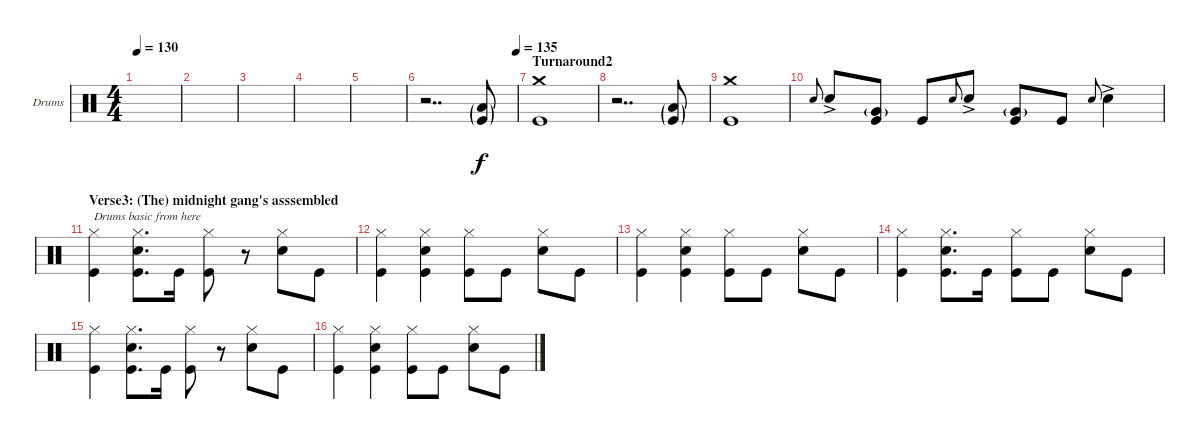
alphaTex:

\defaultSystemsLayout 4
\bracketExtendMode groupsimilarinstruments
\firstSystemTrackNameOrientation horizontal
\otherSystemsTrackNameOrientation horizontal
\track ("Drumkit" "Drums") {instrument percussion}
\staff {score}
\articulation defaults
\ts (4 4)
\tempo 130
\clef neutral
\scale
0.333333
\ks c
|
\scale
0.333333 |
\scale
0.333333 |
\scale
0.333333 |
\scale
0.333333 |
\tempo (135 1)
\scale
0.333333 r.2{dd} ("Kick (hit)"{g} "Low Tom (hit)"{g}).8 |
\section ("" "Turnaround2")
\scale
0.333333 ("Kick (hit)" "Crash medium (hit)").1 |
\scale
0.333333 r.2{dd} ("Kick (hit)"{g} "Low Tom (hit)"{g}).8 |
\scale
0.333333 ("Kick (hit)" "Crash medium (hit)").1 |
\scale
0.333333 "Snare (hit) 2".8{gr onbeat} "Snare (hit) 2"{ac}.8 ("Very Low Tom (hit)"{g} "Kick (hit)").8 "Kick (hit)".8 "Snare (hit) 2".8{gr onbeat} "Snare (hit) 2"{ac}.8 ("Very Low Tom (hit)"{g} "Kick (hit)").8 "Kick (hit)".8 "Snare (hit) 2".8{gr onbeat} "Snare (hit) 2"{ac}.4 |
\section ("" "Verse3: (The) midnight gang's asssembled")
\scale
0.333333 ("Kick (hit)" "Hi-Hat (closed)").4{txt "Drums basic from here"} ("Kick (hit)" "Snare (hit) 2" "Hi-Hat (closed)").8{d} "Kick (hit)".16 ("Kick (hit)" "Hi-Hat (closed)").8 r.8 ("Snare (hit) 2" "Hi-Hat (closed)").8 "Kick (hit)".8 |
\scale
0.333333 ("Kick (hit)" "Hi-Hat (closed)").4 ("Kick (hit)" "Snare (hit) 2" "Hi-Hat (closed)").4 ("Kick (hit)" "Hi-Hat (closed)").8 "Kick (hit)".8 ("Snare (hit) 2" "Hi-Hat (closed)").8 "Kick (hit)".8 |
\scale
0.333333 ("Kick (hit)" "Hi-Hat (closed)").4 ("Kick (hit)" "Snare (hit) 2" "Hi-Hat (closed)").4 ("Kick (hit)" "Hi-Hat (closed)").8 "Kick (hit)".8 ("Snare (hit) 2" "Hi-Hat (closed)").8 "Kick (hit)".8 |
\scale
0.333333 ("Kick (hit)" "Hi-Hat (closed)").4 ("Kick (hit)" "Snare (hit) 2" "Hi-Hat (closed)").8{d} "Kick (hit)".16 ("Kick (hit)" "Hi-Hat (closed)").8 "Kick (hit)".8 ("Snare (hit) 2" "Hi-Hat (closed)").8 "Kick (hit)".8 |
\scale
0.333333 ("Kick (hit)" "Hi-Hat (closed)").4 ("Kick (hit)" "Snare (hit) 2" "Hi-Hat (closed)").8{d} "Kick (hit)".16 ("Kick (hit)" "Hi-Hat (closed)").8 r.8 ("Snare (hit) 2" "Hi-Hat (closed)").8 "Kick (hit)".8 |
\scale
0.333333 ("Kick (hit)" "Hi-Hat (closed)").4 ("Kick (hit)" "Snare (hit) 2" "Hi-Hat (closed)").4 ("Kick (hit)" "Hi-Hat (closed)").8 "Kick (hit)".8 ("Snare (hit) 2" "Hi-Hat (closed)").8 "Kick (hit)".8
